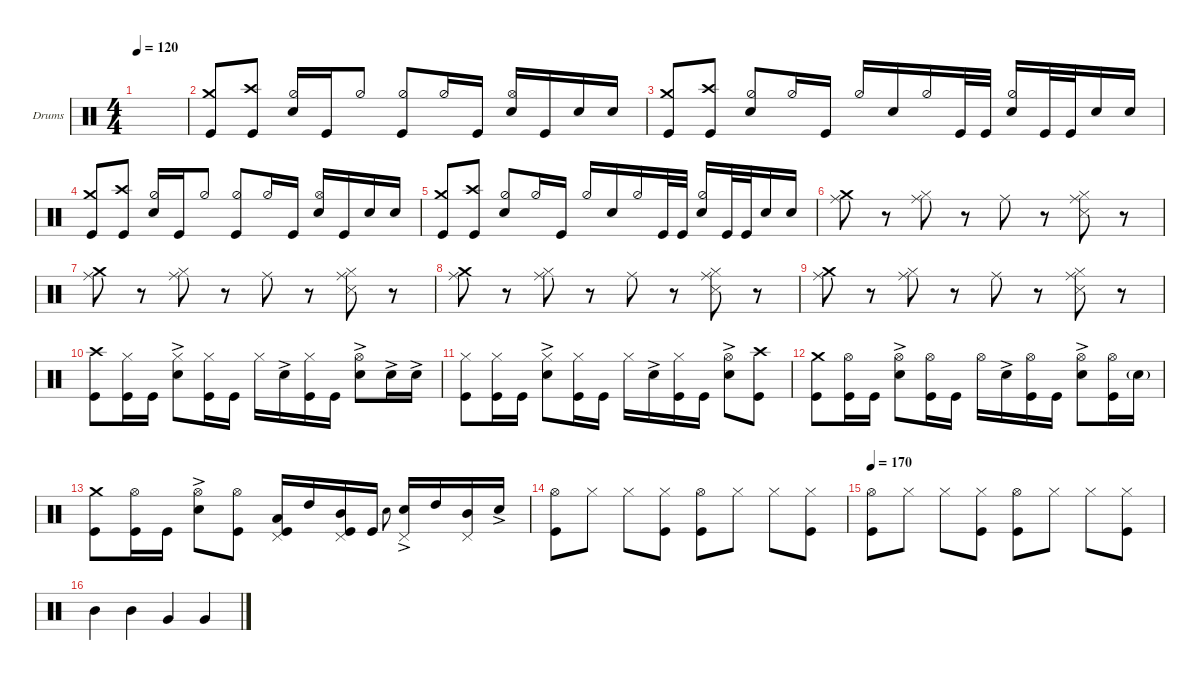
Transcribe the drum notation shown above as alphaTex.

\defaultSystemsLayout 4
\hideDynamics
\bracketExtendMode groupsimilarinstruments
\firstSystemTrackNameOrientation horizontal
\otherSystemsTrackNameOrientation horizontal
\track ("Drumkit" "Drums") {instrument percussion}
\staff {score}
\articulation defaults
\ts (4 4)
\tempo 120
\clef neutral
\ks c
|
("Crash medium (hit)" "Kick (hit)").8 ("Kick (hit)" "Crash high (hit)").8 ("Hi-Hat (half)" "Snare (hit) 2").16{beam invert} "Kick (hit)".16 "Hi-Hat (half)".8 ("Hi-Hat (half)" "Kick (hit)").8{beam invert} "Hi-Hat (half)".16 "Kick (hit)".16 ("Hi-Hat (open)" "Snare (hit) 2").16{beam invert} "Kick (hit)".16 "Snare (hit) 2".16 "Snare (hit) 2".16 |
("Crash medium (hit)" "Kick (hit)").8 ("Kick (hit)" "Crash high (hit)").8 ("Hi-Hat (half)" "Snare (hit) 2").8{beam invert} "Hi-Hat (half)".16 "Kick (hit)".16 "Hi-Hat (half)".16{beam invert} "Snare (hit) 2".16 "Hi-Hat (half)".16 "Kick (hit)".32 "Kick (hit)".32 ("Snare (hit) 2" "Hi-Hat (half)").16{beam invert} "Kick (hit)".32 "Kick (hit)".32 "Snare (hit) 2".16 "Snare (hit) 2".16 |
("Crash medium (hit)" "Kick (hit)").8 ("Kick (hit)" "Crash high (hit)").8 ("Hi-Hat (half)" "Snare (hit) 2").16{beam invert} "Kick (hit)".16 "Hi-Hat (half)".8 ("Hi-Hat (half)" "Kick (hit)").8{beam invert} "Hi-Hat (half)".16 "Kick (hit)".16 ("Hi-Hat (open)" "Snare (hit) 2").16{beam invert} "Kick (hit)".16 "Snare (hit) 2".16 "Snare (hit) 2".16 |
("Crash medium (hit)" "Kick (hit)").8 ("Kick (hit)" "Crash high (hit)").8 ("Hi-Hat (half)" "Snare (hit) 2").8{beam invert} "Hi-Hat (half)".16 "Kick (hit)".16 "Hi-Hat (half)".16{beam invert} "Snare (hit) 2".16 "Hi-Hat (half)".16 "Kick (hit)".32 "Kick (hit)".32 ("Snare (hit) 2" "Hi-Hat (half)").16{beam invert} "Kick (hit)".32 "Kick (hit)".32 "Snare (hit) 2".16 "Snare (hit) 2".16 |
("Ride (middle)" "Crash medium (hit)").8 r.8 ("Hi-Hat (closed)" "Ride (middle)").8{dy mp} r.8 "Ride (middle)".8{dy mf} r.8 ("Hi-Hat (closed)" "Snare (side stick) 3" "Ride (middle)").8{dy mp} r.8 |
("Ride (middle)" "Crash medium (hit)").8{dy mf} r.8 ("Hi-Hat (closed)" "Ride (middle)").8{dy mp} r.8 "Ride (middle)".8{dy mf} r.8 ("Hi-Hat (closed)" "Snare (side stick) 3" "Ride (middle)").8{dy mp} r.8 |
("Ride (middle)" "Crash medium (hit)").8{dy mf} r.8 ("Hi-Hat (closed)" "Ride (middle)").8{dy mp} r.8 "Ride (middle)".8{dy mf} r.8 ("Hi-Hat (closed)" "Snare (side stick) 3" "Ride (middle)").8{dy mp} r.8 |
("Ride (middle)" "Crash medium (hit)").8{dy mf} r.8 ("Hi-Hat (closed)" "Ride (middle)").8{dy mp} r.8 "Ride (middle)".8{dy mf} r.8 ("Hi-Hat (closed)" "Snare (side stick) 3" "Ride (middle)").8{dy mp} r.8 |
("Kick (hit)" "Crash high (hit)").8{dy f} ("Kick (hit)" "Hi-Hat (closed)").16 "Kick (hit)".16 ("Snare (hit) 2"{ac} "Hi-Hat (closed)").8 ("Kick (hit)" "Hi-Hat (closed)").16 "Kick (hit)".16 "Hi-Hat (closed)".16 "Snare (hit) 2"{ac}.16 ("Kick (hit)" "Hi-Hat (closed)").16 "Kick (hit)".16 ("Snare (hit) 2"{ac} "Hi-Hat (open)").8 "Snare (hit) 2"{ac}.16 "Snare (hit) 2"{ac}.16 |
("Kick (hit)" "Hi-Hat (closed)").8 ("Kick (hit)" "Hi-Hat (closed)").16 "Kick (hit)".16 ("Snare (hit) 2"{ac} "Hi-Hat (closed)").8 ("Kick (hit)" "Hi-Hat (closed)").16 "Kick (hit)".16 "Hi-Hat (closed)".16 "Snare (hit) 2"{ac}.16 ("Kick (hit)" "Hi-Hat (closed)").16 "Kick (hit)".16 ("Snare (hit) 2"{ac} "Hi-Hat (open)").8 ("Kick (hit)" "Crash high (hit)").8 |
("Kick (hit)" "Crash medium (hit)").8 ("Kick (hit)" "Hi-Hat (open)").16 "Kick (hit)".16 ("Snare (hit) 2"{ac} "Hi-Hat (open)").8 ("Kick (hit)" "Hi-Hat (open)").16 "Kick (hit)".16 "Hi-Hat (open)".16 "Snare (hit) 2"{ac}.16 ("Kick (hit)" "Hi-Hat (open)").16 "Kick (hit)".16 ("Snare (hit) 2"{ac} "Hi-Hat (open)").8 ("Kick (hit)" "Hi-Hat (open)").16 "Snare (hit) 2"{g}.16 |
("Kick (hit)" "Crash medium (hit)").8 ("Kick (hit)" "Hi-Hat (open)").16 "Kick (hit)".16 ("Snare (hit) 2"{ac} "Hi-Hat (open)").8 ("Hi-Hat (open)" "Kick (hit)").8 ("Kick (hit)" "Low Tom (hit)" "Pedal Hi-Hat (hit)").16 "High Tom (hit)".16 ("Mid Tom (hit)" "Kick (hit)" "Pedal Hi-Hat (hit)").16 "Kick (hit)".16 "Snare (hit) 2".8{gr onbeat dy mf beam invert} ("Snare (hit) 2"{ac} "Pedal Hi-Hat (hit)").16{dy f} "High Tom (hit)".16 ("Mid Tom (hit)" "Pedal Hi-Hat (hit)").16 "Snare (hit) 2"{ac}.16 |
("Hi-Hat (open)" "Kick (hit)").8 "Hi-Hat (closed)".8 "Hi-Hat (closed)".8 ("Hi-Hat (closed)" "Kick (hit)").8 ("Hi-Hat (open)" "Kick (hit)").8 "Hi-Hat (closed)".8 "Hi-Hat (closed)".8 ("Hi-Hat (closed)" "Kick (hit)").8 |
\tempo 170
("Hi-Hat (open)" "Kick (hit)").8 "Hi-Hat (closed)".8 "Hi-Hat (closed)".8 ("Hi-Hat (closed)" "Kick (hit)").8 ("Hi-Hat (open)" "Kick (hit)").8 "Hi-Hat (closed)".8 "Hi-Hat (closed)".8 ("Hi-Hat (closed)" "Kick (hit)").8 |
"Mid Tom (hit)".4 "Mid Tom (hit)".4 "Very Low Tom (hit)".4 "Very Low Tom (hit)".4
